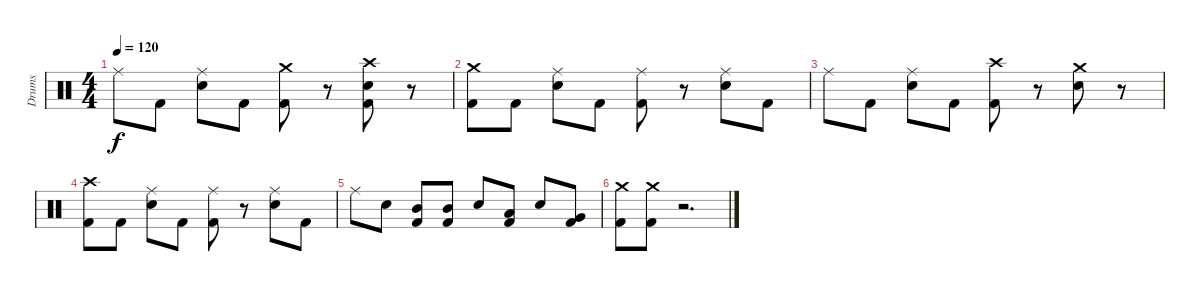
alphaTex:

\track ("Drums" "Drums") {instrument percussion}
\staff {score}
\articulation defaults
\ts (4 4)
\tempo 120
\clef neutral
\ks c "Ride (middle)".8{dy f} "Kick (hit) 2".8
("Ride (middle)" "Electric Snare (hit)").8 "Kick (hit) 2".8 ("Crash medium (hit)" "Kick (hit) 2").8 r.8 ("Crash high (hit)" "Electric Snare (hit)" "Kick (hit) 2").8 r.8 |
("Crash medium (hit)" "Kick (hit) 2").8 "Kick (hit) 2".8 ("Ride (middle)" "Electric Snare (hit)").8 "Kick (hit) 2".8 ("Ride (middle)" "Kick (hit) 2").8 r.8 ("Ride (middle)" "Electric Snare (hit)").8 "Kick (hit) 2".8 |
"Ride (middle)".8 "Kick (hit) 2".8 ("Ride (middle)" "Electric Snare (hit)").8 "Kick (hit) 2".8 ("Crash high (hit)" "Kick (hit) 2").8 r.8 ("Crash medium (hit)" "Electric Snare (hit)").8 r.8 |
("Crash high (hit)" "Kick (hit) 2").8 "Kick (hit) 2".8 ("Ride (middle)" "Electric Snare (hit)").8 "Kick (hit) 2".8 ("Ride (middle)" "Kick (hit) 2").8 r.8 ("Ride (middle)" "Electric Snare (hit)").8 "Kick (hit) 2".8 |
"Ride (middle)".8 "Electric Snare (hit)".8 ("Mid Tom (hit)" "Kick (hit) 2").8 ("Mid Tom (hit)" "Kick (hit) 2").8 "Electric Snare (hit)".8 ("Low Tom (hit)" "Kick (hit) 2").8 "Electric Snare (hit)".8 ("Very Low Tom (hit)" "Kick (hit) 2").8 |
("Crash medium (hit)" "Kick (hit) 2").8 ("Crash medium (hit)" "Kick (hit) 2").8 r.2{d}
